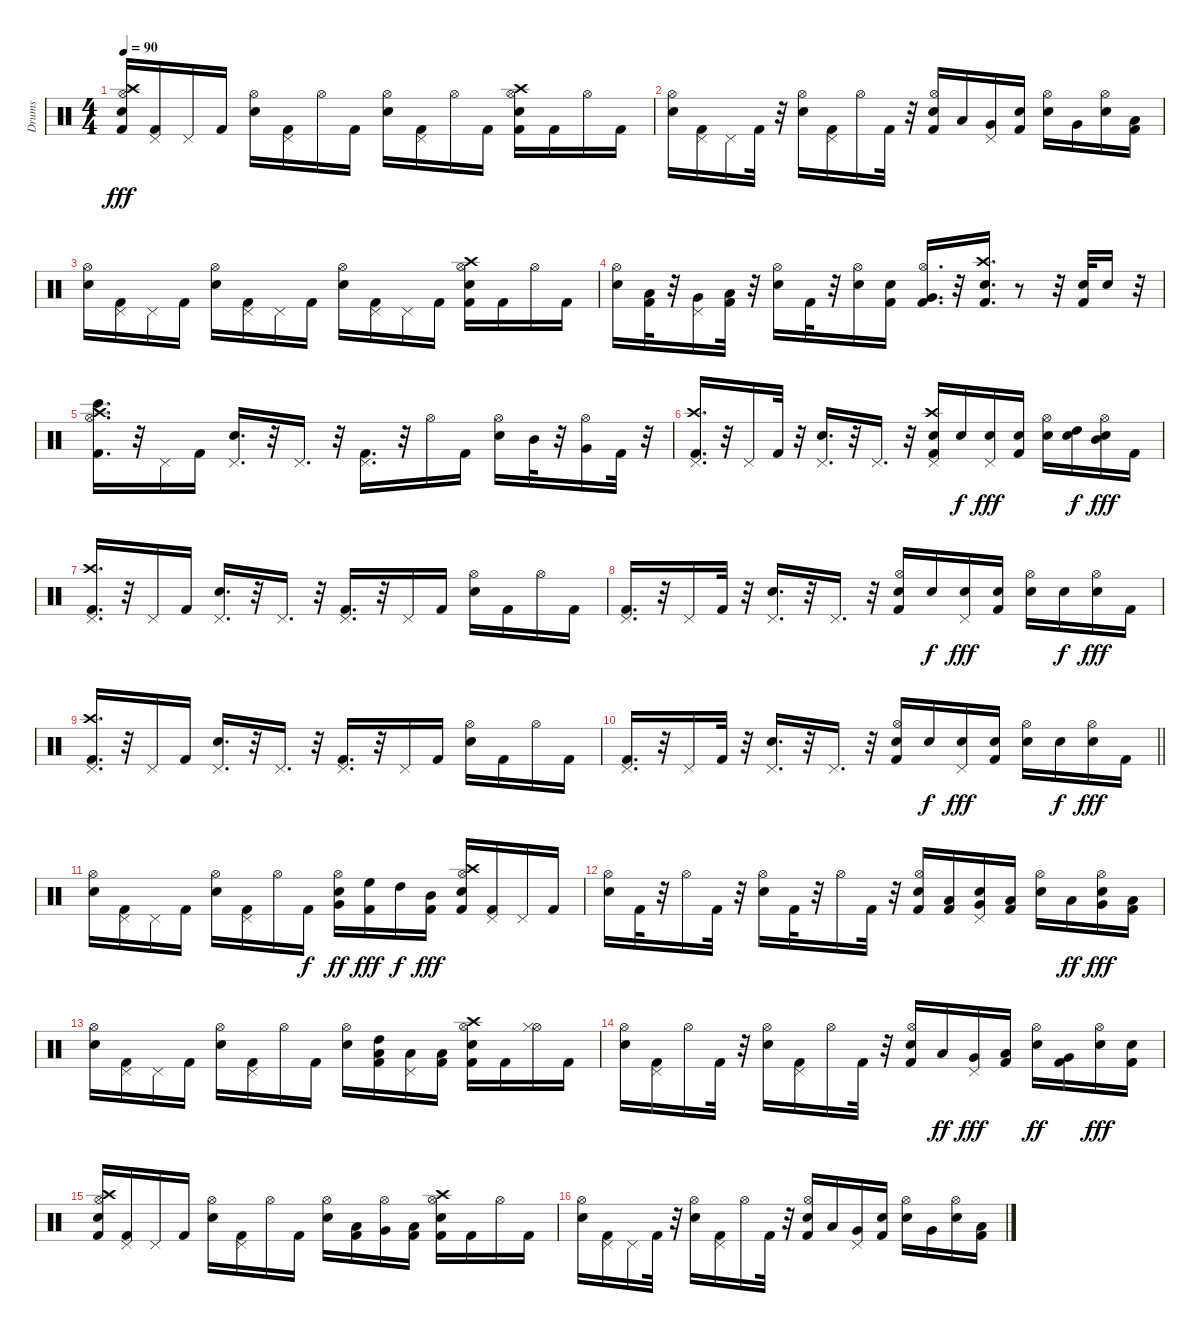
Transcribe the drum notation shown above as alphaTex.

\track ("Drums" "Drums") {instrument percussion}
\staff {score}
\articulation defaults
\ts (4 4)
\tempo 90
\clef neutral
\ks c
("Kick (hit) 2" "Crash high (hit)" "Hi-Hat (open)" "Electric Snare (hit)").16{dy fff} ("Pedal Hi-Hat (hit)" "Kick (hit) 2").16 "Pedal Hi-Hat (hit)".16 "Kick (hit) 2".16 ("Electric Snare (hit)" "Hi-Hat (open)").16 ("Pedal Hi-Hat (hit)" "Kick (hit) 2").16 "Hi-Hat (open)".16 "Kick (hit) 2".16 ("Electric Snare (hit)" "Hi-Hat (open)").16 ("Pedal Hi-Hat (hit)" "Kick (hit) 2").16 "Hi-Hat (open)".16 "Kick (hit) 2".16 ("Kick (hit) 2" "Crash high (hit)" "Hi-Hat (open)" "Electric Snare (hit)").16 "Kick (hit) 2".16 "Hi-Hat (open)".16 "Kick (hit) 2".16 |
("Hi-Hat (open)" "Electric Snare (hit)").16 ("Pedal Hi-Hat (hit)" "Kick (hit) 2").16 "Pedal Hi-Hat (hit)".16 "Kick (hit) 2".32 r.32 ("Hi-Hat (open)" "Electric Snare (hit)").16 ("Pedal Hi-Hat (hit)" "Kick (hit) 2").16 "Hi-Hat (open)".16 "Kick (hit) 2".32 r.32 ("Hi-Hat (open)" "Kick (hit) 2" "Electric Snare (hit)").16 "Low Tom (hit)".16 ("Pedal Hi-Hat (hit)" "Very Low Tom (hit)").16 ("Electric Snare (hit)" "Kick (hit) 2").16 ("Hi-Hat (open)" "Electric Snare (hit)").16 "Very Low Tom (hit)".16 ("Hi-Hat (open)" "Electric Snare (hit)").16 ("Low Floor Tom (hit)" "Kick (hit) 2").16 |
("Hi-Hat (open)" "Electric Snare (hit)").16 ("Pedal Hi-Hat (hit)" "Kick (hit) 2").16 "Pedal Hi-Hat (hit)".16 "Kick (hit) 2".16 ("Electric Snare (hit)" "Hi-Hat (open)").16 ("Pedal Hi-Hat (hit)" "Kick (hit) 2").16 "Pedal Hi-Hat (hit)".16 "Kick (hit) 2".16 ("Electric Snare (hit)" "Hi-Hat (open)").16 ("Pedal Hi-Hat (hit)" "Kick (hit) 2").16 "Pedal Hi-Hat (hit)".16 "Kick (hit) 2".16 ("Kick (hit) 2" "Crash high (hit)" "Hi-Hat (open)" "Electric Snare (hit)").16 "Kick (hit) 2".16 "Hi-Hat (open)".16 "Kick (hit) 2".16 |
("Hi-Hat (open)" "Electric Snare (hit)").16 ("Kick (hit) 2" "Low Tom (hit)").32 r.32 ("Very Low Tom (hit)" "Pedal Hi-Hat (hit)").16 ("Kick (hit) 2" "Low Floor Tom (hit)").32 r.32 ("Hi-Hat (open)" "Electric Snare (hit)").16 "Kick (hit) 2".32 r.32 ("Electric Snare (hit)" "Hi-Hat (open)").16 ("Electric Snare (hit)" "Kick (hit) 2").16 ("Hi-Hat (open)" "Very Low Tom (hit)" "Kick (hit) 2").16{d} r.32 ("Crash high (hit)" "Kick (hit) 2" "Electric Snare (hit)").16{d} r.8 r.32 ("Kick (hit) 2" "Electric Snare (hit)").32 "Electric Snare (hit)".16 r.32 |
("Bongo High (hit)" "Crash high (hit)" "Kick (hit) 2" "Hi-Hat (open)").16{d} r.32 "Pedal Hi-Hat (hit)".16 "Kick (hit) 2".16 ("Electric Snare (hit)" "Pedal Hi-Hat (hit)").16{d} r.32 "Pedal Hi-Hat (hit)".16{d} r.32 ("Kick (hit) 2" "Pedal Hi-Hat (hit)").16{d} r.32 "Hi-Hat (open)".16 "Kick (hit) 2".16 ("Electric Snare (hit)" "Hi-Hat (open)").16 "Mid Tom (hit)".32 r.32 ("Hi-Hat (open)" "Very Low Tom (hit)").16 "Kick (hit) 2".32 r.32 |
("Crash high (hit)" "Kick (hit) 2" "Pedal Hi-Hat (hit)").16{d} r.32 "Pedal Hi-Hat (hit)".16 "Kick (hit) 2".32 r.32 ("Electric Snare (hit)" "Pedal Hi-Hat (hit)").16{d} r.32 "Pedal Hi-Hat (hit)".16{d} r.32 ("Electric Snare (hit)" "Crash high (hit)" "Kick (hit) 2" "Pedal Hi-Hat (hit)").16 "Electric Snare (hit)".16{dy f} ("Electric Snare (hit)" "Pedal Hi-Hat (hit)").16{dy fff} ("Electric Snare (hit)" "Kick (hit) 2").16 ("Electric Snare (hit)" "Hi-Hat (open)").16 ("High Tom (hit)" "Electric Snare (hit)").16{dy f} ("Mid Tom (hit)" "Electric Snare (hit)" "Hi-Hat (open)").16{dy fff} "Kick (hit) 2".16 |
("Crash high (hit)" "Kick (hit) 2" "Pedal Hi-Hat (hit)").16{d} r.32 "Pedal Hi-Hat (hit)".16 "Kick (hit) 2".16 ("Electric Snare (hit)" "Pedal Hi-Hat (hit)").16{d} r.32 "Pedal Hi-Hat (hit)".16{d} r.32 ("Pedal Hi-Hat (hit)" "Kick (hit) 2").16{d} r.32 "Pedal Hi-Hat (hit)".16 "Kick (hit) 2".16 ("Hi-Hat (open)" "Electric Snare (hit)").16 "Kick (hit) 2".16 "Hi-Hat (open)".16 "Kick (hit) 2".16 |
("Pedal Hi-Hat (hit)" "Kick (hit) 2").16{d} r.32 "Pedal Hi-Hat (hit)".16 "Kick (hit) 2".32 r.32 ("Pedal Hi-Hat (hit)" "Electric Snare (hit)").16{d} r.32 "Pedal Hi-Hat (hit)".16{d} r.32 ("Hi-Hat (open)" "Electric Snare (hit)" "Kick (hit) 2").16 "Electric Snare (hit)".16{dy f} ("Pedal Hi-Hat (hit)" "Electric Snare (hit)").16{dy fff} ("Electric Snare (hit)" "Kick (hit) 2").16 ("Hi-Hat (open)" "Electric Snare (hit)").16 "Electric Snare (hit)".16{dy f} ("Hi-Hat (open)" "Electric Snare (hit)").16{dy fff} "Kick (hit) 2".16 |
("Crash high (hit)" "Kick (hit) 2" "Pedal Hi-Hat (hit)").16{d} r.32 "Pedal Hi-Hat (hit)".16 "Kick (hit) 2".16 ("Electric Snare (hit)" "Pedal Hi-Hat (hit)").16{d} r.32 "Pedal Hi-Hat (hit)".16{d} r.32 ("Pedal Hi-Hat (hit)" "Kick (hit) 2").16{d} r.32 "Pedal Hi-Hat (hit)".16 "Kick (hit) 2".16 ("Hi-Hat (open)" "Electric Snare (hit)").16 "Kick (hit) 2".16 "Hi-Hat (open)".16 "Kick (hit) 2".16 |
\barLineRight lightlight
("Pedal Hi-Hat (hit)" "Kick (hit) 2").16{d} r.32 "Pedal Hi-Hat (hit)".16 "Kick (hit) 2".32 r.32 ("Pedal Hi-Hat (hit)" "Electric Snare (hit)").16{d} r.32 "Pedal Hi-Hat (hit)".16{d} r.32 ("Hi-Hat (open)" "Electric Snare (hit)" "Kick (hit) 2").16 "Electric Snare (hit)".16{dy f} ("Pedal Hi-Hat (hit)" "Electric Snare (hit)").16{dy fff} ("Electric Snare (hit)" "Kick (hit) 2").16 ("Hi-Hat (open)" "Electric Snare (hit)").16 "Electric Snare (hit)".16{dy f} ("Hi-Hat (open)" "Electric Snare (hit)").16{dy fff} "Kick (hit) 2".16 |
("Hi-Hat (open)" "Electric Snare (hit)").16 ("Kick (hit) 2" "Pedal Hi-Hat (hit)").16 "Pedal Hi-Hat (hit)".16 "Kick (hit) 2".16 ("Electric Snare (hit)" "Hi-Hat (open)").16 ("Kick (hit) 2" "Pedal Hi-Hat (hit)").16 "Hi-Hat (open)".16 "Kick (hit) 2".16{dy f} ("Electric Snare (hit)" "Hi-Hat (open)" "Very Low Tom (hit)").16{dy ff} ("Kick (hit) 2" "High Floor Tom (hit)").16{dy fff} "High Tom (hit)".16{dy f} ("Kick (hit) 2" "Mid Tom (hit)").16{dy fff} ("Kick (hit) 2" "Crash high (hit)" "Hi-Hat (open)" "Electric Snare (hit)").16 ("Kick (hit) 2" "Pedal Hi-Hat (hit)").16 "Pedal Hi-Hat (hit)".16 "Kick (hit) 2".16 |
("Hi-Hat (open)" "Electric Snare (hit)").16 "Kick (hit) 2".32 r.32 "Hi-Hat (open)".16 "Kick (hit) 2".32 r.32 ("Hi-Hat (open)" "Electric Snare (hit)").16 "Kick (hit) 2".32 r.32 "Hi-Hat (open)".16 "Kick (hit) 2".32 r.32 ("Hi-Hat (open)" "Electric Snare (hit)" "Kick (hit) 2").16 ("Low Tom (hit)" "Kick (hit) 2").16 ("Electric Snare (hit)" "Pedal Hi-Hat (hit)" "Very Low Tom (hit)").16 ("Low Floor Tom (hit)" "Kick (hit) 2").16 ("Hi-Hat (open)" "Electric Snare (hit)").16 "Low Tom (hit)".16{dy ff} ("Electric Snare (hit)" "Hi-Hat (open)" "Very Low Tom (hit)").16{dy fff} ("Low Floor Tom (hit)" "Kick (hit) 2").16 |
("Hi-Hat (open)" "Electric Snare (hit)").16 ("Pedal Hi-Hat (hit)" "Kick (hit) 2").16 "Pedal Hi-Hat (hit)".16 "Kick (hit) 2".16 ("Electric Snare (hit)" "Hi-Hat (open)").16 ("Pedal Hi-Hat (hit)" "Kick (hit) 2").16 "Hi-Hat (open)".16 "Kick (hit) 2".16 ("Electric Snare (hit)" "Hi-Hat (open)").16 ("High Tom (hit)" "Low Tom (hit)" "Kick (hit) 2").16 ("Low Tom (hit)" "Pedal Hi-Hat (hit)").16 ("Low Floor Tom (hit)" "Kick (hit) 2").16 ("Kick (hit) 2" "Crash high (hit)" "Hi-Hat (open)" "Electric Snare (hit)").16 "Kick (hit) 2".16 ("Hi-Hat (open)" "Hi-Hat (closed)").16 "Kick (hit) 2".16 |
("Hi-Hat (open)" "Electric Snare (hit)").16 ("Pedal Hi-Hat (hit)" "Kick (hit) 2").16 "Hi-Hat (open)".16 "Kick (hit) 2".32 r.32 ("Hi-Hat (open)" "Electric Snare (hit)").16 ("Pedal Hi-Hat (hit)" "Kick (hit) 2").16 "Hi-Hat (open)".16 "Kick (hit) 2".32 r.32 ("Hi-Hat (open)" "Electric Snare (hit)" "Kick (hit) 2").16 "Low Tom (hit)".16{dy ff} ("Pedal Hi-Hat (hit)" "Very Low Tom (hit)").16{dy fff} ("Low Floor Tom (hit)" "Kick (hit) 2").16 ("Hi-Hat (open)" "Electric Snare (hit)").16{dy ff} ("Kick (hit) 2" "Very Low Tom (hit)").16 ("Hi-Hat (open)" "Electric Snare (hit)").16{dy fff} ("Electric Snare (hit)" "Kick (hit) 2").16 |
("Kick (hit) 2" "Crash high (hit)" "Hi-Hat (open)" "Electric Snare (hit)").16 ("Pedal Hi-Hat (hit)" "Kick (hit) 2").16 "Pedal Hi-Hat (hit)".16 "Kick (hit) 2".16 ("Electric Snare (hit)" "Hi-Hat (open)").16 ("Pedal Hi-Hat (hit)" "Kick (hit) 2").16 "Hi-Hat (open)".16 "Kick (hit) 2".16 ("Electric Snare (hit)" "Hi-Hat (open)").16 ("Low Tom (hit)" "Kick (hit) 2").16 ("Hi-Hat (open)" "Very Low Tom (hit)").16 ("Low Floor Tom (hit)" "Kick (hit) 2").16 ("Kick (hit) 2" "Crash high (hit)" "Hi-Hat (open)" "Electric Snare (hit)").16 "Kick (hit) 2".16 "Hi-Hat (open)".16 "Kick (hit) 2".16 |
("Hi-Hat (open)" "Electric Snare (hit)").16 ("Pedal Hi-Hat (hit)" "Kick (hit) 2").16 "Pedal Hi-Hat (hit)".16 "Kick (hit) 2".32 r.32 ("Hi-Hat (open)" "Electric Snare (hit)").16 ("Pedal Hi-Hat (hit)" "Kick (hit) 2").16 "Hi-Hat (open)".16 "Kick (hit) 2".32 r.32 ("Hi-Hat (open)" "Kick (hit) 2" "Electric Snare (hit)").16 "Low Tom (hit)".16 ("Pedal Hi-Hat (hit)" "Very Low Tom (hit)").16 ("Electric Snare (hit)" "Kick (hit) 2").16 ("Hi-Hat (open)" "Electric Snare (hit)").16 "Very Low Tom (hit)".16 ("Hi-Hat (open)" "Electric Snare (hit)").16 ("Low Floor Tom (hit)" "Kick (hit) 2").16
